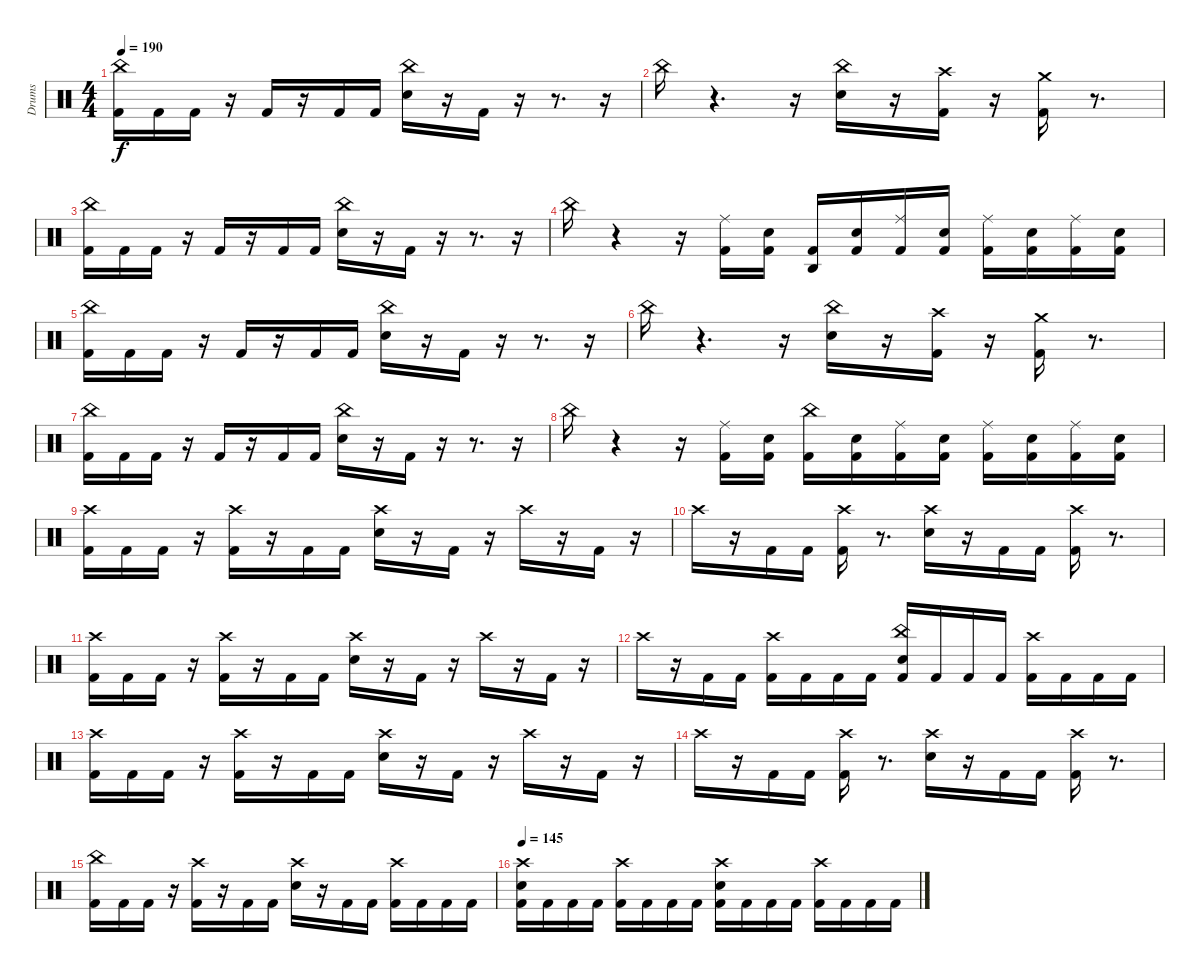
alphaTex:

\track ("Drums" "Drums") {instrument percussion}
\staff {score}
\articulation defaults
\ts (4 4)
\tempo 190
\clef neutral
\ks c
("Kick (hit) 2" "China (hit)").16{dy f} "Kick (hit) 2".16 "Kick (hit) 2".16 r.16 "Kick (hit) 2".16 r.16 "Kick (hit) 2".16 "Kick (hit) 2".16 ("Snare (hit) 2" "China (hit)").16 r.16 "Kick (hit) 2".16 r.16 r.8{d} r.16 |
"China (hit)".16 r.4{d} r.16 ("Snare (hit) 2" "China (hit)").16 r.16 ("Kick (hit) 2" "Crash high (hit)").16 r.16 ("Kick (hit) 2" "Crash medium (hit)").16 r.8{d} |
("Kick (hit) 2" "China (hit)").16 "Kick (hit) 2".16 "Kick (hit) 2".16 r.16 "Kick (hit) 2".16 r.16 "Kick (hit) 2".16 "Kick (hit) 2".16 ("Snare (hit) 2" "China (hit)").16 r.16 "Kick (hit) 2".16 r.16 r.8{d} r.16 |
"China (hit)".16 r.4 r.16 ("Kick (hit) 2" "Ride (middle)").16 ("Kick (hit) 2" "Snare (hit) 2").16 ("Kick (hit) 2" "Agogo high (hit)").16 ("Kick (hit) 2" "Snare (hit) 2").16 ("Kick (hit) 2" "Ride (middle)").16 ("Kick (hit) 2" "Snare (hit) 2").16 ("Kick (hit) 2" "Ride (middle)").16 ("Kick (hit) 2" "Snare (hit) 2").16 ("Kick (hit) 2" "Ride (middle)").16 ("Kick (hit) 2" "Snare (hit) 2").16 |
("Kick (hit) 2" "China (hit)").16 "Kick (hit) 2".16 "Kick (hit) 2".16 r.16 "Kick (hit) 2".16 r.16 "Kick (hit) 2".16 "Kick (hit) 2".16 ("Snare (hit) 2" "China (hit)").16 r.16 "Kick (hit) 2".16 r.16 r.8{d} r.16 |
"China (hit)".16 r.4{d} r.16 ("Snare (hit) 2" "China (hit)").16 r.16 ("Kick (hit) 2" "Crash high (hit)").16 r.16 ("Kick (hit) 2" "Crash medium (hit)").16 r.8{d} |
("Kick (hit) 2" "China (hit)").16 "Kick (hit) 2".16 "Kick (hit) 2".16 r.16 "Kick (hit) 2".16 r.16 "Kick (hit) 2".16 "Kick (hit) 2".16 ("Snare (hit) 2" "China (hit)").16 r.16 "Kick (hit) 2".16 r.16 r.8{d} r.16 |
"China (hit)".16 r.4 r.16 ("Kick (hit) 2" "Ride (middle)").16 ("Kick (hit) 2" "Snare (hit) 2").16 ("Kick (hit) 2" "China (hit)").16 ("Kick (hit) 2" "Snare (hit) 2").16 ("Kick (hit) 2" "Ride (middle)").16 ("Kick (hit) 2" "Snare (hit) 2").16 ("Kick (hit) 2" "Ride (middle)").16 ("Kick (hit) 2" "Snare (hit) 2").16 ("Kick (hit) 2" "Ride (middle)").16 ("Kick (hit) 2" "Snare (hit) 2").16 |
("Kick (hit) 2" "Crash high (hit)").16 "Kick (hit) 2".16 "Kick (hit) 2".16 r.16 ("Kick (hit) 2" "Crash high (hit)").16 r.16 "Kick (hit) 2".16 "Kick (hit) 2".16 ("Snare (hit) 2" "Crash high (hit)").16 r.16 "Kick (hit) 2".16 r.16 "Crash high (hit)".16 r.16 "Kick (hit) 2".16 r.16 |
"Crash high (hit)".16 r.16 "Kick (hit) 2".16 "Kick (hit) 2".16 ("Kick (hit) 2" "Crash high (hit)").16 r.8{d} ("Snare (hit) 2" "Crash high (hit)").16 r.16 "Kick (hit) 2".16 "Kick (hit) 2".16 ("Kick (hit) 2" "Crash high (hit)").16 r.8{d} |
("Kick (hit) 2" "Crash high (hit)").16 "Kick (hit) 2".16 "Kick (hit) 2".16 r.16 ("Kick (hit) 2" "Crash high (hit)").16 r.16 "Kick (hit) 2".16 "Kick (hit) 2".16 ("Snare (hit) 2" "Crash high (hit)").16 r.16 "Kick (hit) 2".16 r.16 "Crash high (hit)".16 r.16 "Kick (hit) 2".16 r.16 |
"Crash high (hit)".16 r.16 "Kick (hit) 2".16 "Kick (hit) 2".16 ("Kick (hit) 2" "Crash high (hit)").16 "Kick (hit) 2".16 "Kick (hit) 2".16 "Kick (hit) 2".16 ("Kick (hit) 2" "Snare (hit) 2" "China (hit)").16 "Kick (hit) 2".16 "Kick (hit) 2".16 "Kick (hit) 2".16 ("Kick (hit) 2" "Crash high (hit)").16 "Kick (hit) 2".16 "Kick (hit) 2".16 "Kick (hit) 2".16 |
("Kick (hit) 2" "Crash high (hit)").16 "Kick (hit) 2".16 "Kick (hit) 2".16 r.16 ("Kick (hit) 2" "Crash high (hit)").16 r.16 "Kick (hit) 2".16 "Kick (hit) 2".16 ("Snare (hit) 2" "Crash high (hit)").16 r.16 "Kick (hit) 2".16 r.16 "Crash high (hit)".16 r.16 "Kick (hit) 2".16 r.16 |
"Crash high (hit)".16 r.16 "Kick (hit) 2".16 "Kick (hit) 2".16 ("Kick (hit) 2" "Crash high (hit)").16 r.8{d} ("Snare (hit) 2" "Crash high (hit)").16 r.16 "Kick (hit) 2".16 "Kick (hit) 2".16 ("Kick (hit) 2" "Crash high (hit)").16 r.8{d} |
("Kick (hit) 2" "China (hit)").16 "Kick (hit) 2".16 "Kick (hit) 2".16 r.16 ("Kick (hit) 2" "Crash high (hit)").16 r.16 "Kick (hit) 2".16 "Kick (hit) 2".16 ("Snare (hit) 2" "Crash high (hit)").16 r.16 "Kick (hit) 2".16 "Kick (hit) 2".16 ("Kick (hit) 2" "Crash high (hit)").16 "Kick (hit) 2".16 "Kick (hit) 2".16 "Kick (hit) 2".16 |
\tempo 145
("Kick (hit) 2" "Snare (hit) 2" "Crash high (hit)").16 "Kick (hit) 2".16 "Kick (hit) 2".16 "Kick (hit) 2".16 ("Kick (hit) 2" "Crash high (hit)").16 "Kick (hit) 2".16 "Kick (hit) 2".16 "Kick (hit) 2".16 ("Kick (hit) 2" "Snare (hit) 2" "Crash high (hit)").16 "Kick (hit) 2".16 "Kick (hit) 2".16 "Kick (hit) 2".16 ("Kick (hit) 2" "Crash high (hit)").16 "Kick (hit) 2".16 "Kick (hit) 2".16 "Kick (hit) 2".16
